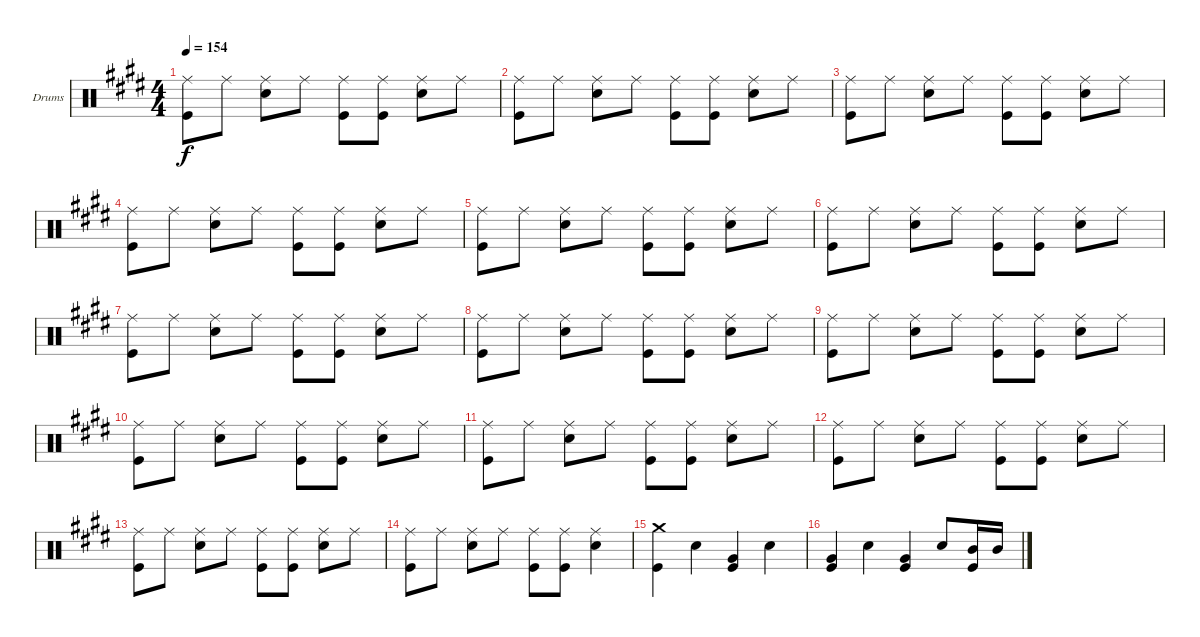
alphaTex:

\defaultSystemsLayout 4
\bracketExtendMode groupsimilarinstruments
\firstSystemTrackNameOrientation horizontal
\otherSystemsTrackNameOrientation horizontal
\track ("Jon Larsen" "Drums") {instrument percussion}
\staff {score}
\articulation defaults
\ts (4 4)
\tempo 154
\clef neutral
\scale
0.333333
\ks e
("Ride (middle)" "Kick (hit)").8{dy f} "Ride (middle)".8 ("Ride (middle)" "Snare (hit) 2").8 "Ride (middle)".8 ("Ride (middle)" "Kick (hit)").8 ("Ride (middle)" "Kick (hit)").8 ("Ride (middle)" "Snare (hit) 2").8 "Ride (middle)".8 |
\scale
0.333333 ("Ride (middle)" "Kick (hit)").8 "Ride (middle)".8 ("Ride (middle)" "Snare (hit) 2").8 "Ride (middle)".8 ("Ride (middle)" "Kick (hit)").8 ("Ride (middle)" "Kick (hit)").8 ("Ride (middle)" "Snare (hit) 2").8 "Ride (middle)".8 |
\scale
0.333333 ("Ride (middle)" "Kick (hit)").8 "Ride (middle)".8 ("Ride (middle)" "Snare (hit) 2").8 "Ride (middle)".8 ("Ride (middle)" "Kick (hit)").8 ("Ride (middle)" "Kick (hit)").8 ("Ride (middle)" "Snare (hit) 2").8 "Ride (middle)".8 |
\scale
0.333333 ("Ride (middle)" "Kick (hit)").8 "Ride (middle)".8 ("Ride (middle)" "Snare (hit) 2").8 "Ride (middle)".8 ("Ride (middle)" "Kick (hit)").8 ("Ride (middle)" "Kick (hit)").8 ("Ride (middle)" "Snare (hit) 2").8 "Ride (middle)".8 |
\scale
0.333333 ("Ride (middle)" "Kick (hit)").8 "Ride (middle)".8 ("Ride (middle)" "Snare (hit) 2").8 "Ride (middle)".8 ("Ride (middle)" "Kick (hit)").8 ("Ride (middle)" "Kick (hit)").8 ("Ride (middle)" "Snare (hit) 2").8 "Ride (middle)".8 |
\scale
0.333333 ("Ride (middle)" "Kick (hit)").8 "Ride (middle)".8 ("Ride (middle)" "Snare (hit) 2").8 "Ride (middle)".8 ("Ride (middle)" "Kick (hit)").8 ("Ride (middle)" "Kick (hit)").8 ("Ride (middle)" "Snare (hit) 2").8 "Ride (middle)".8 |
\scale
0.333333 ("Ride (middle)" "Kick (hit)").8 "Ride (middle)".8 ("Ride (middle)" "Snare (hit) 2").8 "Ride (middle)".8 ("Ride (middle)" "Kick (hit)").8 ("Ride (middle)" "Kick (hit)").8 ("Ride (middle)" "Snare (hit) 2").8 "Ride (middle)".8 |
\scale
0.333333 ("Ride (middle)" "Kick (hit)").8 "Ride (middle)".8 ("Ride (middle)" "Snare (hit) 2").8 "Ride (middle)".8 ("Ride (middle)" "Kick (hit)").8 ("Ride (middle)" "Kick (hit)").8 ("Ride (middle)" "Snare (hit) 2").8 "Ride (middle)".8 |
\scale
0.333333 ("Ride (middle)" "Kick (hit)").8 "Ride (middle)".8 ("Ride (middle)" "Snare (hit) 2").8 "Ride (middle)".8 ("Ride (middle)" "Kick (hit)").8 ("Ride (middle)" "Kick (hit)").8 ("Ride (middle)" "Snare (hit) 2").8 "Ride (middle)".8 |
\scale
0.333333 ("Ride (middle)" "Kick (hit)").8 "Ride (middle)".8 ("Ride (middle)" "Snare (hit) 2").8 "Ride (middle)".8 ("Ride (middle)" "Kick (hit)").8 ("Ride (middle)" "Kick (hit)").8 ("Ride (middle)" "Snare (hit) 2").8 "Ride (middle)".8 |
\scale
0.333333 ("Ride (middle)" "Kick (hit)").8 "Ride (middle)".8 ("Ride (middle)" "Snare (hit) 2").8 "Ride (middle)".8 ("Ride (middle)" "Kick (hit)").8 ("Ride (middle)" "Kick (hit)").8 ("Ride (middle)" "Snare (hit) 2").8 "Ride (middle)".8 |
\scale
0.333333 ("Ride (middle)" "Kick (hit)").8 "Ride (middle)".8 ("Ride (middle)" "Snare (hit) 2").8 "Ride (middle)".8 ("Ride (middle)" "Kick (hit)").8 ("Ride (middle)" "Kick (hit)").8 ("Ride (middle)" "Snare (hit) 2").8 "Ride (middle)".8 |
\scale
0.333333 ("Ride (middle)" "Kick (hit)").8 "Ride (middle)".8 ("Ride (middle)" "Snare (hit) 2").8 "Ride (middle)".8 ("Ride (middle)" "Kick (hit)").8 ("Ride (middle)" "Kick (hit)").8 ("Ride (middle)" "Snare (hit) 2").8 "Ride (middle)".8 |
\scale
0.333333 ("Ride (middle)" "Kick (hit)").8 "Ride (middle)".8 ("Ride (middle)" "Snare (hit) 2").8 "Ride (middle)".8 ("Ride (middle)" "Kick (hit)").8 ("Ride (middle)" "Kick (hit)").8 ("Ride (middle)" "Snare (hit) 2").4 |
\scale
0.333333 ("Crash medium (hit)" "Kick (hit)").4 "Snare (hit) 2".4 ("Very Low Tom (hit)" "Kick (hit)").4 "Snare (hit) 2".4 |
\scale
0.333333 ("Very Low Tom (hit)" "Kick (hit)").4 "Snare (hit) 2".4 ("Very Low Tom (hit)" "Kick (hit)").4 "Snare (hit) 2".8 ("Mid Tom (hit)" "Kick (hit)").16 "Mid Tom (hit)".16
